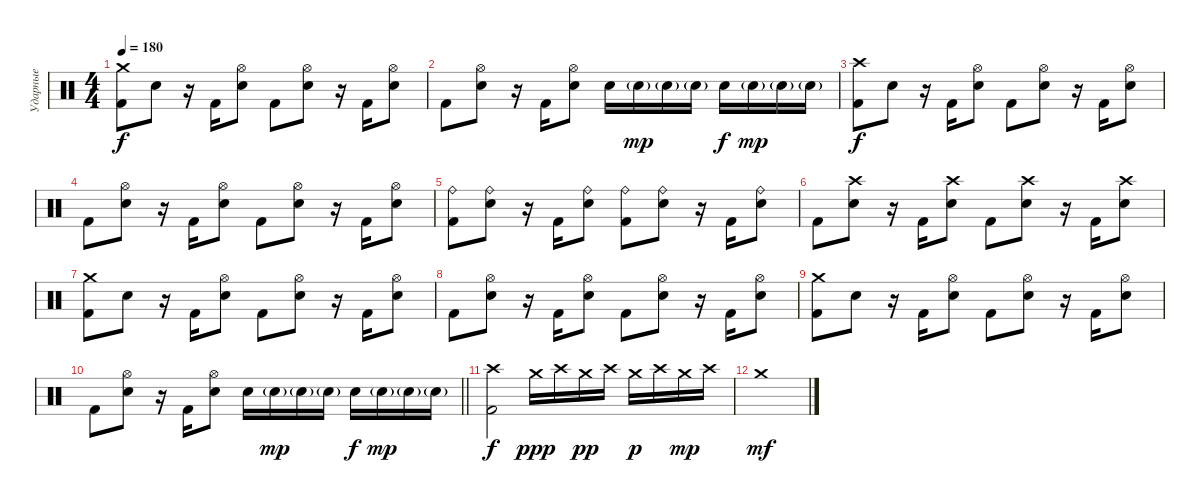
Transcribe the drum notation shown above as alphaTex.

\track ("Ударные" "Ударные") {instrument percussion}
\staff {score}
\articulation defaults
\ts (4 4)
\tempo 180
\clef neutral
\ks c
("Crash medium (hit)" "Kick (hit) 2").8{dy f} "Electric Snare (hit)".8 r.16 "Kick (hit) 2".16 ("Hi-Hat (open)" "Electric Snare (hit)").8 "Kick (hit) 2".8 ("Hi-Hat (open)" "Electric Snare (hit)").8 r.16 "Kick (hit) 2".16 ("Hi-Hat (open)" "Electric Snare (hit)").8 |
"Kick (hit) 2".8 ("Hi-Hat (open)" "Electric Snare (hit)").8 r.16 "Kick (hit) 2".16 ("Hi-Hat (open)" "Electric Snare (hit)").8 "Electric Snare (hit)".16 "Electric Snare (hit)"{g}.16{dy mp} "Electric Snare (hit)"{g}.16 "Electric Snare (hit)"{g}.16 "Electric Snare (hit)".16{dy f} "Electric Snare (hit)"{g}.16{dy mp} "Electric Snare (hit)"{g}.16 "Electric Snare (hit)"{g}.16 |
("Crash high (hit)" "Kick (hit) 2").8{dy f} "Electric Snare (hit)".8 r.16 "Kick (hit) 2".16 ("Hi-Hat (open)" "Electric Snare (hit)").8 "Kick (hit) 2".8 ("Hi-Hat (open)" "Electric Snare (hit)").8 r.16 "Kick (hit) 2".16 ("Hi-Hat (open)" "Electric Snare (hit)").8 |
"Kick (hit) 2".8 ("Hi-Hat (open)" "Electric Snare (hit)").8 r.16 "Kick (hit) 2".16 ("Hi-Hat (open)" "Electric Snare (hit)").8 "Kick (hit) 2".8 ("Hi-Hat (open)" "Electric Snare (hit)").8 r.16 "Kick (hit) 2".16 ("Hi-Hat (open)" "Electric Snare (hit)").8 |
("Ride (bell)" "Kick (hit) 2").8 ("Ride (bell)" "Electric Snare (hit)").8 r.16 "Kick (hit) 2".16 ("Ride (bell)" "Electric Snare (hit)").8 ("Ride (bell)" "Kick (hit) 2").8 ("Ride (bell)" "Electric Snare (hit)").8 r.16 "Kick (hit) 2".16 ("Ride (bell)" "Electric Snare (hit)").8 |
"Kick (hit) 2".8 ("Crash high (hit)" "Electric Snare (hit)").8 r.16 "Kick (hit) 2".16 ("Crash high (hit)" "Electric Snare (hit)").8 "Kick (hit) 2".8 ("Crash high (hit)" "Electric Snare (hit)").8 r.16 "Kick (hit) 2".16 ("Crash high (hit)" "Electric Snare (hit)").8 |
("Crash medium (hit)" "Kick (hit) 2").8 "Electric Snare (hit)".8 r.16 "Kick (hit) 2".16 ("Hi-Hat (open)" "Electric Snare (hit)").8 "Kick (hit) 2".8 ("Hi-Hat (open)" "Electric Snare (hit)").8 r.16 "Kick (hit) 2".16 ("Hi-Hat (open)" "Electric Snare (hit)").8 |
"Kick (hit) 2".8 ("Hi-Hat (open)" "Electric Snare (hit)").8 r.16 "Kick (hit) 2".16 ("Hi-Hat (open)" "Electric Snare (hit)").8 "Kick (hit) 2".8 ("Hi-Hat (open)" "Electric Snare (hit)").8 r.16 "Kick (hit) 2".16 ("Hi-Hat (open)" "Electric Snare (hit)").8 |
("Crash medium (hit)" "Kick (hit) 2").8 "Electric Snare (hit)".8 r.16 "Kick (hit) 2".16 ("Hi-Hat (open)" "Electric Snare (hit)").8 "Kick (hit) 2".8 ("Hi-Hat (open)" "Electric Snare (hit)").8 r.16 "Kick (hit) 2".16 ("Hi-Hat (open)" "Electric Snare (hit)").8 |
\barLineRight lightlight "Kick (hit) 2".8
("Hi-Hat (open)" "Electric Snare (hit)").8 r.16 "Kick (hit) 2".16 ("Hi-Hat (open)" "Electric Snare (hit)").8 "Electric Snare (hit)".16 "Electric Snare (hit)"{g}.16{dy mp} "Electric Snare (hit)"{g}.16 "Electric Snare (hit)"{g}.16 "Electric Snare (hit)".16{dy f} "Electric Snare (hit)"{g}.16{dy mp} "Electric Snare (hit)"{g}.16 "Electric Snare (hit)"{g}.16 |
\section ("" "")
("Crash high (hit)" "Kick (hit) 2").2{dy f} "Crash medium (hit)".16{dy ppp} "Crash high (hit)".16 "Crash medium (hit)".16{dy pp} "Crash high (hit)".16 "Crash medium (hit)".16{dy p} "Crash high (hit)".16 "Crash medium (hit)".16{dy mp} "Crash high (hit)".16 |
"Crash medium (hit)".1{dy mf}
